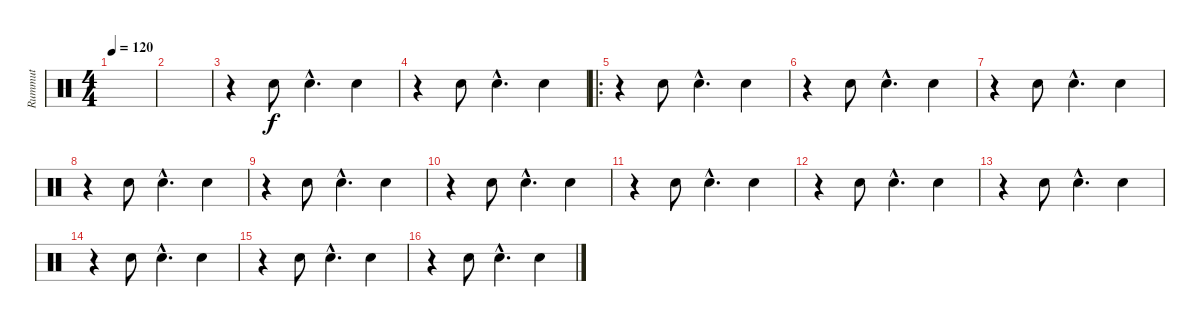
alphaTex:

\track ("Rummut" "Rummut") {instrument percussion}
\staff {score}
\articulation defaults
\ts (4 4)
\tempo 120
\clef neutral
\ks c
|
|
r.4 "Snare (hit) 2".8 "Snare (hit) 2"{hac}.4{d} "Snare (hit) 2".4 |
r.4 "Snare (hit) 2".8 "Snare (hit) 2"{hac}.4{d} "Snare (hit) 2".4 |
\ro
r.4 "Snare (hit) 2".8 "Snare (hit) 2"{hac}.4{d} "Snare (hit) 2".4 |
r.4 "Snare (hit) 2".8 "Snare (hit) 2"{hac}.4{d} "Snare (hit) 2".4 |
r.4 "Snare (hit) 2".8 "Snare (hit) 2"{hac}.4{d} "Snare (hit) 2".4 |
r.4 "Snare (hit) 2".8 "Snare (hit) 2"{hac}.4{d} "Snare (hit) 2".4 |
r.4 "Snare (hit) 2".8 "Snare (hit) 2"{hac}.4{d} "Snare (hit) 2".4 |
r.4 "Snare (hit) 2".8 "Snare (hit) 2"{hac}.4{d} "Snare (hit) 2".4 |
r.4 "Snare (hit) 2".8 "Snare (hit) 2"{hac}.4{d} "Snare (hit) 2".4 |
r.4 "Snare (hit) 2".8 "Snare (hit) 2"{hac}.4{d} "Snare (hit) 2".4 |
r.4 "Snare (hit) 2".8 "Snare (hit) 2"{hac}.4{d} "Snare (hit) 2".4 |
r.4 "Snare (hit) 2".8 "Snare (hit) 2"{hac}.4{d} "Snare (hit) 2".4 |
r.4 "Snare (hit) 2".8 "Snare (hit) 2"{hac}.4{d} "Snare (hit) 2".4 |
r.4 "Snare (hit) 2".8 "Snare (hit) 2"{hac}.4{d} "Snare (hit) 2".4
